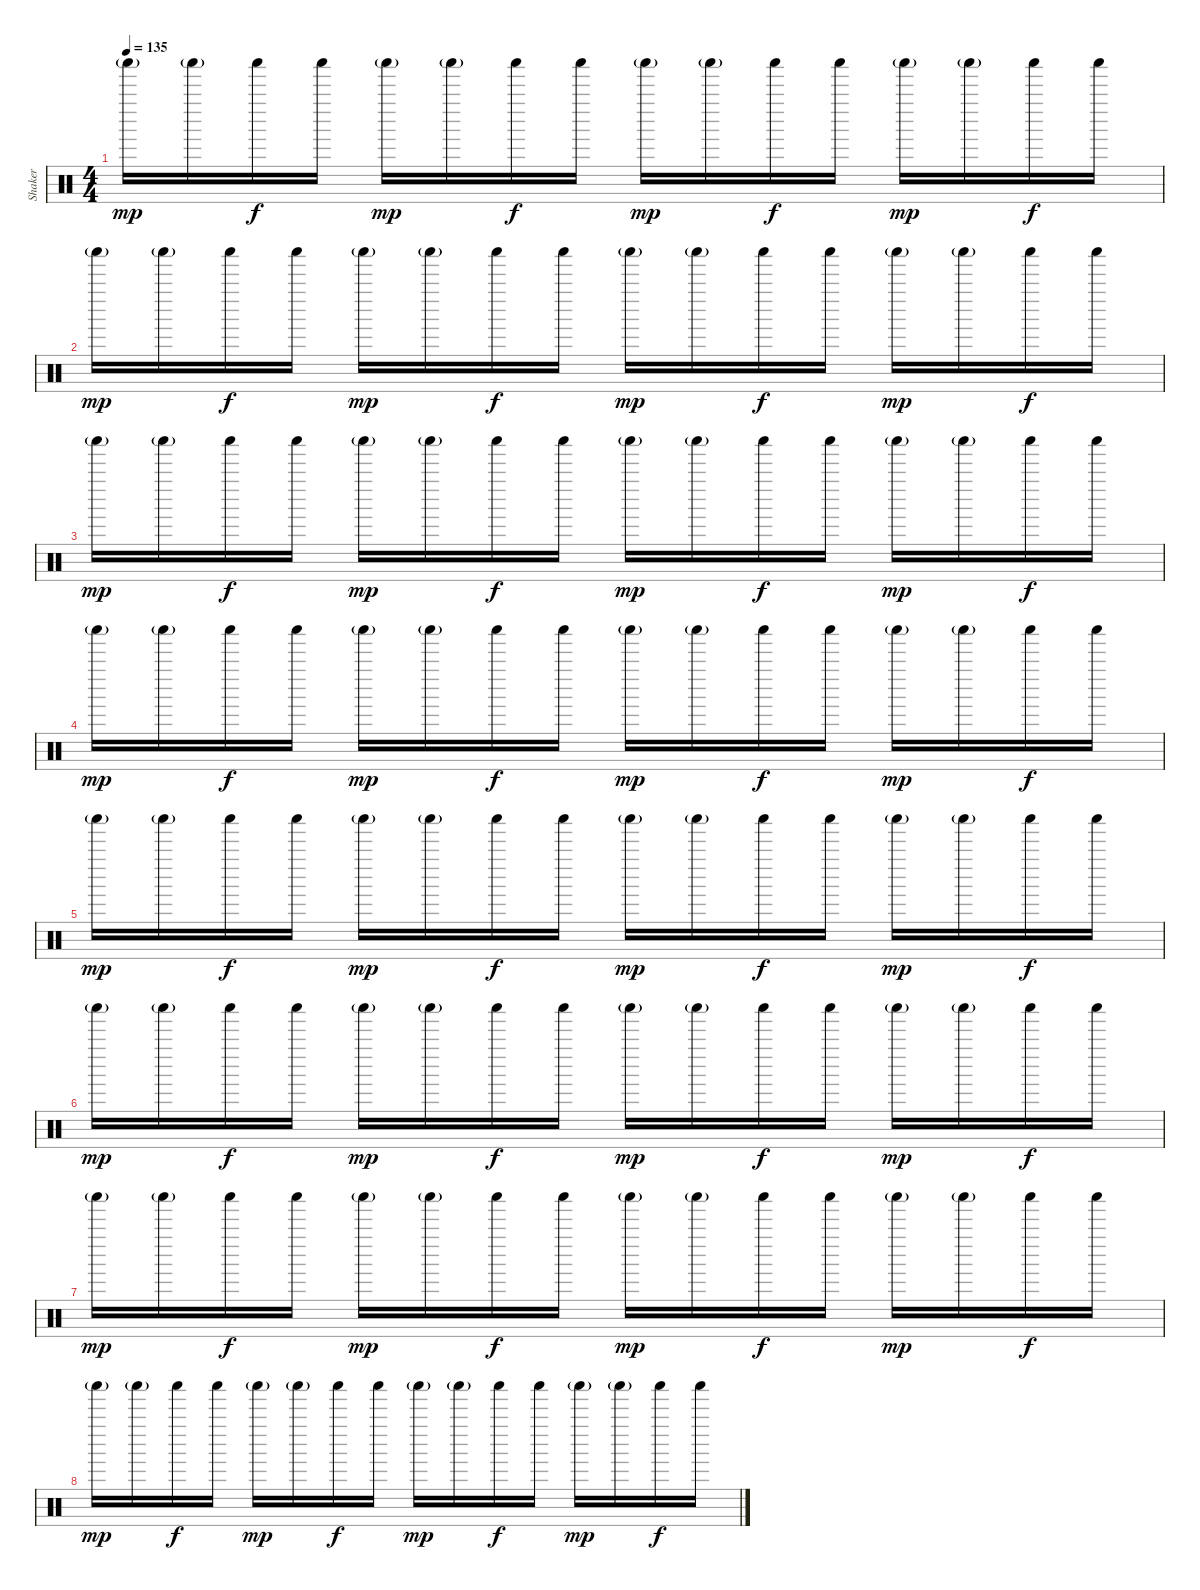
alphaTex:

\track ("Shaker" "Shaker") {instrument percussion}
\staff {score}
\articulation defaults
\ts (4 4)
\tempo 135
\clef neutral
\ks c "Shaker (hit)"{g}.16{dy mp} "Shaker (hit)"{g}.16 "Shaker (hit)".16{dy f} "Shaker (hit)".16 "Shaker (hit)"{g}.16{dy mp} "Shaker (hit)"{g}.16 "Shaker (hit)".16{dy f} "Shaker (hit)".16 "Shaker (hit)"{g}.16{dy mp} "Shaker (hit)"{g}.16 "Shaker (hit)".16{dy f} "Shaker (hit)".16 "Shaker (hit)"{g}.16{dy mp} "Shaker (hit)"{g}.16 "Shaker (hit)".16{dy f} "Shaker (hit)".16
|
"Shaker (hit)"{g}.16{dy mp} "Shaker (hit)"{g}.16 "Shaker (hit)".16{dy f} "Shaker (hit)".16 "Shaker (hit)"{g}.16{dy mp} "Shaker (hit)"{g}.16 "Shaker (hit)".16{dy f} "Shaker (hit)".16 "Shaker (hit)"{g}.16{dy mp} "Shaker (hit)"{g}.16 "Shaker (hit)".16{dy f} "Shaker (hit)".16 "Shaker (hit)"{g}.16{dy mp} "Shaker (hit)"{g}.16 "Shaker (hit)".16{dy f} "Shaker (hit)".16 |
"Shaker (hit)"{g}.16{dy mp} "Shaker (hit)"{g}.16 "Shaker (hit)".16{dy f} "Shaker (hit)".16 "Shaker (hit)"{g}.16{dy mp} "Shaker (hit)"{g}.16 "Shaker (hit)".16{dy f} "Shaker (hit)".16 "Shaker (hit)"{g}.16{dy mp} "Shaker (hit)"{g}.16 "Shaker (hit)".16{dy f} "Shaker (hit)".16 "Shaker (hit)"{g}.16{dy mp} "Shaker (hit)"{g}.16 "Shaker (hit)".16{dy f} "Shaker (hit)".16 |
"Shaker (hit)"{g}.16{dy mp} "Shaker (hit)"{g}.16 "Shaker (hit)".16{dy f} "Shaker (hit)".16 "Shaker (hit)"{g}.16{dy mp} "Shaker (hit)"{g}.16 "Shaker (hit)".16{dy f} "Shaker (hit)".16 "Shaker (hit)"{g}.16{dy mp} "Shaker (hit)"{g}.16 "Shaker (hit)".16{dy f} "Shaker (hit)".16 "Shaker (hit)"{g}.16{dy mp} "Shaker (hit)"{g}.16 "Shaker (hit)".16{dy f} "Shaker (hit)".16 |
"Shaker (hit)"{g}.16{dy mp} "Shaker (hit)"{g}.16 "Shaker (hit)".16{dy f} "Shaker (hit)".16 "Shaker (hit)"{g}.16{dy mp} "Shaker (hit)"{g}.16 "Shaker (hit)".16{dy f} "Shaker (hit)".16 "Shaker (hit)"{g}.16{dy mp} "Shaker (hit)"{g}.16 "Shaker (hit)".16{dy f} "Shaker (hit)".16 "Shaker (hit)"{g}.16{dy mp} "Shaker (hit)"{g}.16 "Shaker (hit)".16{dy f} "Shaker (hit)".16 |
"Shaker (hit)"{g}.16{dy mp} "Shaker (hit)"{g}.16 "Shaker (hit)".16{dy f} "Shaker (hit)".16 "Shaker (hit)"{g}.16{dy mp} "Shaker (hit)"{g}.16 "Shaker (hit)".16{dy f} "Shaker (hit)".16 "Shaker (hit)"{g}.16{dy mp} "Shaker (hit)"{g}.16 "Shaker (hit)".16{dy f} "Shaker (hit)".16 "Shaker (hit)"{g}.16{dy mp} "Shaker (hit)"{g}.16 "Shaker (hit)".16{dy f} "Shaker (hit)".16 |
"Shaker (hit)"{g}.16{dy mp} "Shaker (hit)"{g}.16 "Shaker (hit)".16{dy f} "Shaker (hit)".16 "Shaker (hit)"{g}.16{dy mp} "Shaker (hit)"{g}.16 "Shaker (hit)".16{dy f} "Shaker (hit)".16 "Shaker (hit)"{g}.16{dy mp} "Shaker (hit)"{g}.16 "Shaker (hit)".16{dy f} "Shaker (hit)".16 "Shaker (hit)"{g}.16{dy mp} "Shaker (hit)"{g}.16 "Shaker (hit)".16{dy f} "Shaker (hit)".16 |
"Shaker (hit)"{g}.16{dy mp} "Shaker (hit)"{g}.16 "Shaker (hit)".16{dy f} "Shaker (hit)".16 "Shaker (hit)"{g}.16{dy mp} "Shaker (hit)"{g}.16 "Shaker (hit)".16{dy f} "Shaker (hit)".16 "Shaker (hit)"{g}.16{dy mp} "Shaker (hit)"{g}.16 "Shaker (hit)".16{dy f} "Shaker (hit)".16 "Shaker (hit)"{g}.16{dy mp} "Shaker (hit)"{g}.16 "Shaker (hit)".16{dy f} "Shaker (hit)".16
